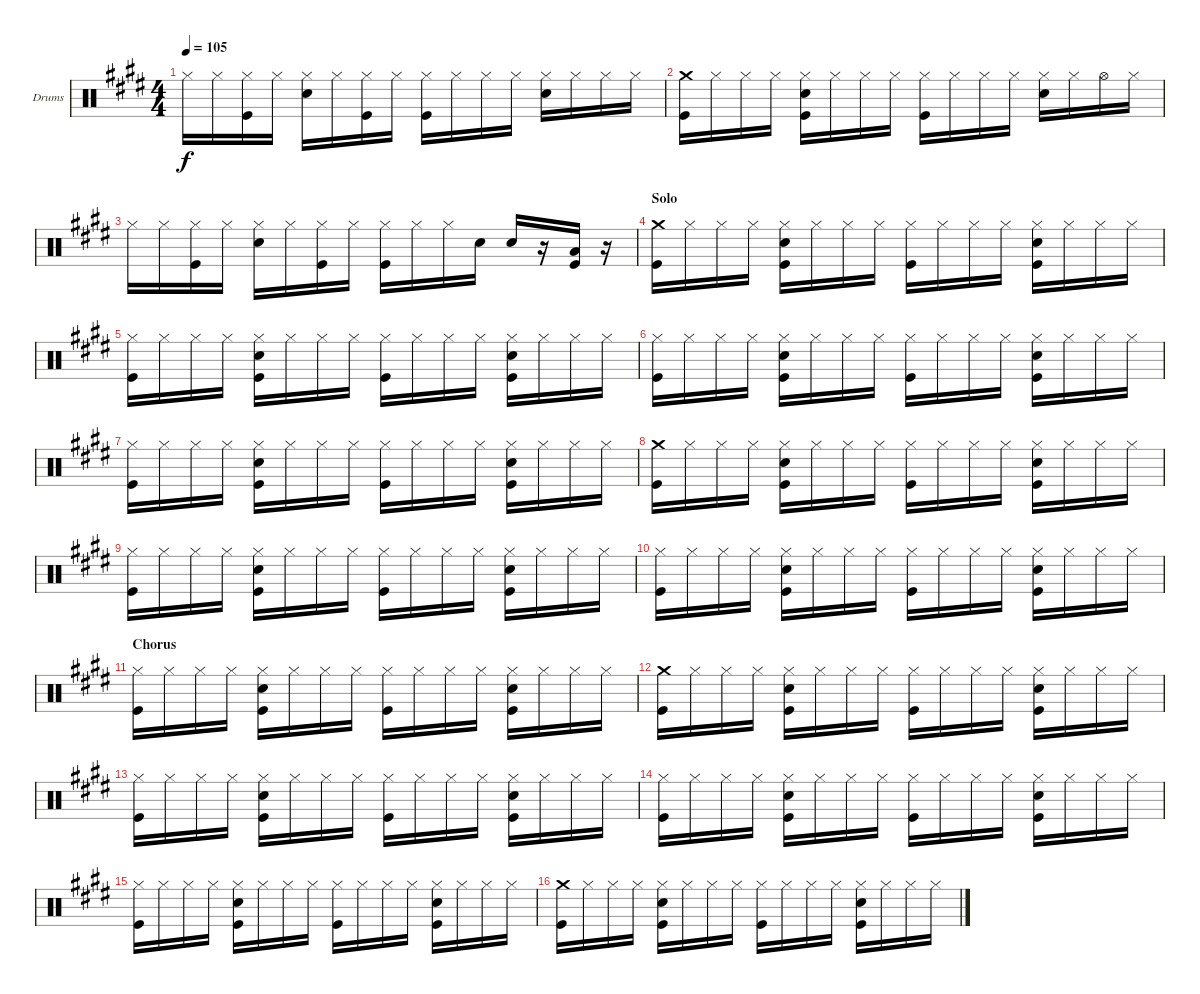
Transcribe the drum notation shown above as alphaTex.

\defaultSystemsLayout 4
\bracketExtendMode groupsimilarinstruments
\firstSystemTrackNameOrientation horizontal
\otherSystemsTrackNameOrientation horizontal
\track ("Drums" "Drums") {instrument percussion}
\staff {score}
\articulation defaults
\ts (4 4)
\tempo 105
\clef neutral
\ks e "Hi-Hat (closed)".16{dy f} "Hi-Hat (closed)".16
("Kick (hit)" "Hi-Hat (closed)").16 "Hi-Hat (closed)".16 ("Snare (hit) 2" "Hi-Hat (closed)").16 "Hi-Hat (closed)".16 ("Kick (hit)" "Hi-Hat (closed)").16 "Hi-Hat (closed)".16 ("Kick (hit)" "Hi-Hat (closed)").16 "Hi-Hat (closed)".16 "Hi-Hat (closed)".16 "Hi-Hat (closed)".16 ("Snare (hit) 2" "Hi-Hat (closed)").16 "Hi-Hat (closed)".16 "Hi-Hat (closed)".16 "Hi-Hat (closed)".16 |
("Kick (hit)" "Crash medium (hit)").16 "Hi-Hat (closed)".16 "Hi-Hat (closed)".16 "Hi-Hat (closed)".16 ("Snare (hit) 2" "Kick (hit)" "Hi-Hat (closed)").16 "Hi-Hat (closed)".16 "Hi-Hat (closed)".16 "Hi-Hat (closed)".16 ("Kick (hit)" "Hi-Hat (closed)").16 "Hi-Hat (closed)".16 "Hi-Hat (closed)".16 "Hi-Hat (closed)".16 ("Snare (hit) 2" "Hi-Hat (closed)").16 "Hi-Hat (closed)".16 "Hi-Hat (open)".16 "Hi-Hat (closed)".16 |
"Hi-Hat (closed)".16 "Hi-Hat (closed)".16 ("Kick (hit)" "Hi-Hat (closed)").16 "Hi-Hat (closed)".16 ("Snare (hit) 2" "Hi-Hat (closed)").16 "Hi-Hat (closed)".16 ("Kick (hit)" "Hi-Hat (closed)").16 "Hi-Hat (closed)".16 ("Kick (hit)" "Hi-Hat (closed)").16 "Hi-Hat (closed)".16 "Hi-Hat (closed)".16 "Snare (hit) 2".16 "Snare (hit) 2".16 r.16 ("Low Tom (hit)" "Kick (hit)").16 r.16 |
\section ("" "Solo")
("Kick (hit)" "Crash medium (hit)").16 "Hi-Hat (closed)".16 "Hi-Hat (closed)".16 "Hi-Hat (closed)".16 ("Kick (hit)" "Snare (hit) 2" "Hi-Hat (closed)").16 "Hi-Hat (closed)".16 "Hi-Hat (closed)".16 "Hi-Hat (closed)".16 ("Kick (hit)" "Hi-Hat (closed)").16 "Hi-Hat (closed)".16 "Hi-Hat (closed)".16 "Hi-Hat (closed)".16 ("Kick (hit)" "Snare (hit) 2" "Hi-Hat (closed)").16 "Hi-Hat (closed)".16 "Hi-Hat (closed)".16 "Hi-Hat (closed)".16 |
("Kick (hit)" "Hi-Hat (closed)").16 "Hi-Hat (closed)".16 "Hi-Hat (closed)".16 "Hi-Hat (closed)".16 ("Kick (hit)" "Snare (hit) 2" "Hi-Hat (closed)").16 "Hi-Hat (closed)".16 "Hi-Hat (closed)".16 "Hi-Hat (closed)".16 ("Kick (hit)" "Hi-Hat (closed)").16 "Hi-Hat (closed)".16 "Hi-Hat (closed)".16 "Hi-Hat (closed)".16 ("Kick (hit)" "Snare (hit) 2" "Hi-Hat (closed)").16 "Hi-Hat (closed)".16 "Hi-Hat (closed)".16 "Hi-Hat (closed)".16 |
("Kick (hit)" "Hi-Hat (closed)").16 "Hi-Hat (closed)".16 "Hi-Hat (closed)".16 "Hi-Hat (closed)".16 ("Kick (hit)" "Snare (hit) 2" "Hi-Hat (closed)").16 "Hi-Hat (closed)".16 "Hi-Hat (closed)".16 "Hi-Hat (closed)".16 ("Kick (hit)" "Hi-Hat (closed)").16 "Hi-Hat (closed)".16 "Hi-Hat (closed)".16 "Hi-Hat (closed)".16 ("Kick (hit)" "Snare (hit) 2" "Hi-Hat (closed)").16 "Hi-Hat (closed)".16 "Hi-Hat (closed)".16 "Hi-Hat (closed)".16 |
("Kick (hit)" "Hi-Hat (closed)").16 "Hi-Hat (closed)".16 "Hi-Hat (closed)".16 "Hi-Hat (closed)".16 ("Kick (hit)" "Snare (hit) 2" "Hi-Hat (closed)").16 "Hi-Hat (closed)".16 "Hi-Hat (closed)".16 "Hi-Hat (closed)".16 ("Kick (hit)" "Hi-Hat (closed)").16 "Hi-Hat (closed)".16 "Hi-Hat (closed)".16 "Hi-Hat (closed)".16 ("Kick (hit)" "Snare (hit) 2" "Hi-Hat (closed)").16 "Hi-Hat (closed)".16 "Hi-Hat (closed)".16 "Hi-Hat (closed)".16 |
("Kick (hit)" "Crash medium (hit)").16 "Hi-Hat (closed)".16 "Hi-Hat (closed)".16 "Hi-Hat (closed)".16 ("Kick (hit)" "Snare (hit) 2" "Hi-Hat (closed)").16 "Hi-Hat (closed)".16 "Hi-Hat (closed)".16 "Hi-Hat (closed)".16 ("Kick (hit)" "Hi-Hat (closed)").16 "Hi-Hat (closed)".16 "Hi-Hat (closed)".16 "Hi-Hat (closed)".16 ("Kick (hit)" "Snare (hit) 2" "Hi-Hat (closed)").16 "Hi-Hat (closed)".16 "Hi-Hat (closed)".16 "Hi-Hat (closed)".16 |
("Kick (hit)" "Hi-Hat (closed)").16 "Hi-Hat (closed)".16 "Hi-Hat (closed)".16 "Hi-Hat (closed)".16 ("Kick (hit)" "Snare (hit) 2" "Hi-Hat (closed)").16 "Hi-Hat (closed)".16 "Hi-Hat (closed)".16 "Hi-Hat (closed)".16 ("Kick (hit)" "Hi-Hat (closed)").16 "Hi-Hat (closed)".16 "Hi-Hat (closed)".16 "Hi-Hat (closed)".16 ("Kick (hit)" "Snare (hit) 2" "Hi-Hat (closed)").16 "Hi-Hat (closed)".16 "Hi-Hat (closed)".16 "Hi-Hat (closed)".16 |
("Kick (hit)" "Hi-Hat (closed)").16 "Hi-Hat (closed)".16 "Hi-Hat (closed)".16 "Hi-Hat (closed)".16 ("Kick (hit)" "Snare (hit) 2" "Hi-Hat (closed)").16 "Hi-Hat (closed)".16 "Hi-Hat (closed)".16 "Hi-Hat (closed)".16 ("Kick (hit)" "Hi-Hat (closed)").16 "Hi-Hat (closed)".16 "Hi-Hat (closed)".16 "Hi-Hat (closed)".16 ("Kick (hit)" "Snare (hit) 2" "Hi-Hat (closed)").16 "Hi-Hat (closed)".16 "Hi-Hat (closed)".16 "Hi-Hat (closed)".16 |
\section ("" "Chorus")
("Kick (hit)" "Hi-Hat (closed)").16 "Hi-Hat (closed)".16 "Hi-Hat (closed)".16 "Hi-Hat (closed)".16 ("Kick (hit)" "Snare (hit) 2" "Hi-Hat (closed)").16 "Hi-Hat (closed)".16 "Hi-Hat (closed)".16 "Hi-Hat (closed)".16 ("Kick (hit)" "Hi-Hat (closed)").16 "Hi-Hat (closed)".16 "Hi-Hat (closed)".16 "Hi-Hat (closed)".16 ("Kick (hit)" "Snare (hit) 2" "Hi-Hat (closed)").16 "Hi-Hat (closed)".16 "Hi-Hat (closed)".16 "Hi-Hat (closed)".16 |
("Kick (hit)" "Crash medium (hit)").16 "Hi-Hat (closed)".16 "Hi-Hat (closed)".16 "Hi-Hat (closed)".16 ("Kick (hit)" "Snare (hit) 2" "Hi-Hat (closed)").16 "Hi-Hat (closed)".16 "Hi-Hat (closed)".16 "Hi-Hat (closed)".16 ("Kick (hit)" "Hi-Hat (closed)").16 "Hi-Hat (closed)".16 "Hi-Hat (closed)".16 "Hi-Hat (closed)".16 ("Kick (hit)" "Snare (hit) 2" "Hi-Hat (closed)").16 "Hi-Hat (closed)".16 "Hi-Hat (closed)".16 "Hi-Hat (closed)".16 |
("Kick (hit)" "Hi-Hat (closed)").16 "Hi-Hat (closed)".16 "Hi-Hat (closed)".16 "Hi-Hat (closed)".16 ("Kick (hit)" "Snare (hit) 2" "Hi-Hat (closed)").16 "Hi-Hat (closed)".16 "Hi-Hat (closed)".16 "Hi-Hat (closed)".16 ("Kick (hit)" "Hi-Hat (closed)").16 "Hi-Hat (closed)".16 "Hi-Hat (closed)".16 "Hi-Hat (closed)".16 ("Kick (hit)" "Snare (hit) 2" "Hi-Hat (closed)").16 "Hi-Hat (closed)".16 "Hi-Hat (closed)".16 "Hi-Hat (closed)".16 |
("Kick (hit)" "Hi-Hat (closed)").16 "Hi-Hat (closed)".16 "Hi-Hat (closed)".16 "Hi-Hat (closed)".16 ("Kick (hit)" "Snare (hit) 2" "Hi-Hat (closed)").16 "Hi-Hat (closed)".16 "Hi-Hat (closed)".16 "Hi-Hat (closed)".16 ("Kick (hit)" "Hi-Hat (closed)").16 "Hi-Hat (closed)".16 "Hi-Hat (closed)".16 "Hi-Hat (closed)".16 ("Kick (hit)" "Snare (hit) 2" "Hi-Hat (closed)").16 "Hi-Hat (closed)".16 "Hi-Hat (closed)".16 "Hi-Hat (closed)".16 |
("Kick (hit)" "Hi-Hat (closed)").16 "Hi-Hat (closed)".16 "Hi-Hat (closed)".16 "Hi-Hat (closed)".16 ("Kick (hit)" "Snare (hit) 2" "Hi-Hat (closed)").16 "Hi-Hat (closed)".16 "Hi-Hat (closed)".16 "Hi-Hat (closed)".16 ("Kick (hit)" "Hi-Hat (closed)").16 "Hi-Hat (closed)".16 "Hi-Hat (closed)".16 "Hi-Hat (closed)".16 ("Kick (hit)" "Snare (hit) 2" "Hi-Hat (closed)").16 "Hi-Hat (closed)".16 "Hi-Hat (closed)".16 "Hi-Hat (closed)".16 |
("Kick (hit)" "Crash medium (hit)").16 "Hi-Hat (closed)".16 "Hi-Hat (closed)".16 "Hi-Hat (closed)".16 ("Kick (hit)" "Snare (hit) 2" "Hi-Hat (closed)").16 "Hi-Hat (closed)".16 "Hi-Hat (closed)".16 "Hi-Hat (closed)".16 ("Kick (hit)" "Hi-Hat (closed)").16 "Hi-Hat (closed)".16 "Hi-Hat (closed)".16 "Hi-Hat (closed)".16 ("Kick (hit)" "Snare (hit) 2" "Hi-Hat (closed)").16 "Hi-Hat (closed)".16 "Hi-Hat (closed)".16 "Hi-Hat (closed)".16
